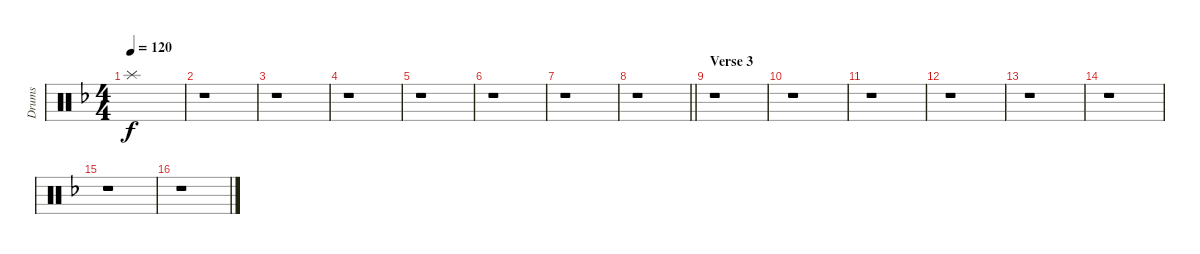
\track ("Drums" "Drums") {instrument percussion}
\staff {score}
\articulation defaults
\ts (4 4)
\tempo 120
\clef neutral
\ks f "Splash (hit)".1{dy f}
|
r.1 |
r.1 |
r.1 |
r.1 |
r.1 |
r.1 |
\barLineRight lightlight
r.1 |
\section ("" "Verse 3")
r.1 |
r.1 |
r.1 |
r.1 |
r.1 |
r.1 |
r.1 |
r.1
